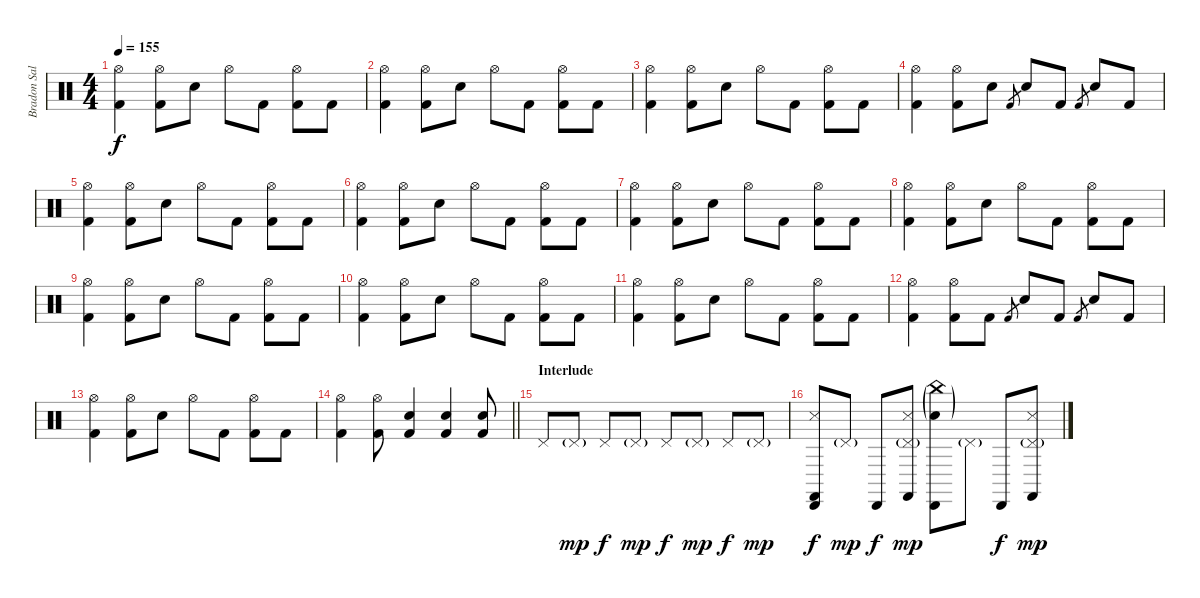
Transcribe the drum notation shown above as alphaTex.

\track ("Bradon Saller" "Bradon Sal") {instrument percussion}
\staff {score}
\articulation defaults
\ts (4 4)
\tempo 155
\clef neutral
\ks c
("Hi-Hat (open)" "Kick (hit) 2").4{dy f} ("Hi-Hat (open)" "Kick (hit) 2").8 "Electric Snare (hit)".8 "Hi-Hat (open)".8 "Kick (hit) 2".8 ("Hi-Hat (open)" "Kick (hit) 2").8 "Kick (hit) 2".8 |
("Hi-Hat (open)" "Kick (hit) 2").4 ("Hi-Hat (open)" "Kick (hit) 2").8 "Electric Snare (hit)".8 "Hi-Hat (open)".8 "Kick (hit) 2".8 ("Hi-Hat (open)" "Kick (hit) 2").8 "Kick (hit) 2".8 |
("Hi-Hat (open)" "Kick (hit) 2").4 ("Hi-Hat (open)" "Kick (hit) 2").8 "Electric Snare (hit)".8 "Hi-Hat (open)".8 "Kick (hit) 2".8 ("Hi-Hat (open)" "Kick (hit) 2").8 "Kick (hit) 2".8 |
("Hi-Hat (open)" "Kick (hit) 2").4 ("Hi-Hat (open)" "Kick (hit) 2").8 "Electric Snare (hit)".8 "Kick (hit) 2".8{gr} "Electric Snare (hit)".8 "Kick (hit) 2".8 "Kick (hit) 2".8{gr} "Electric Snare (hit)".8 "Kick (hit) 2".8 |
("Hi-Hat (open)" "Kick (hit) 2").4 ("Hi-Hat (open)" "Kick (hit) 2").8 "Electric Snare (hit)".8 "Hi-Hat (open)".8 "Kick (hit) 2".8 ("Hi-Hat (open)" "Kick (hit) 2").8 "Kick (hit) 2".8 |
("Hi-Hat (open)" "Kick (hit) 2").4 ("Hi-Hat (open)" "Kick (hit) 2").8 "Electric Snare (hit)".8 "Hi-Hat (open)".8 "Kick (hit) 2".8 ("Hi-Hat (open)" "Kick (hit) 2").8 "Kick (hit) 2".8 |
("Hi-Hat (open)" "Kick (hit) 2").4 ("Hi-Hat (open)" "Kick (hit) 2").8 "Electric Snare (hit)".8 "Hi-Hat (open)".8 "Kick (hit) 2".8 ("Hi-Hat (open)" "Kick (hit) 2").8 "Kick (hit) 2".8 |
("Hi-Hat (open)" "Kick (hit) 2").4 ("Hi-Hat (open)" "Kick (hit) 2").8 "Electric Snare (hit)".8 "Hi-Hat (open)".8 "Kick (hit) 2".8 ("Hi-Hat (open)" "Kick (hit) 2").8 "Kick (hit) 2".8 |
("Hi-Hat (open)" "Kick (hit) 2").4 ("Hi-Hat (open)" "Kick (hit) 2").8 "Electric Snare (hit)".8 "Hi-Hat (open)".8 "Kick (hit) 2".8 ("Hi-Hat (open)" "Kick (hit) 2").8 "Kick (hit) 2".8 |
("Hi-Hat (open)" "Kick (hit) 2").4 ("Hi-Hat (open)" "Kick (hit) 2").8 "Electric Snare (hit)".8 "Hi-Hat (open)".8 "Kick (hit) 2".8 ("Hi-Hat (open)" "Kick (hit) 2").8 "Kick (hit) 2".8 |
("Hi-Hat (open)" "Kick (hit) 2").4 ("Hi-Hat (open)" "Kick (hit) 2").8 "Electric Snare (hit)".8 "Hi-Hat (open)".8 "Kick (hit) 2".8 ("Hi-Hat (open)" "Kick (hit) 2").8 "Kick (hit) 2".8 |
("Hi-Hat (open)" "Kick (hit) 2").4 ("Hi-Hat (open)" "Kick (hit) 2").8 "Kick (hit) 2".8 "Kick (hit) 2".8{gr} "Electric Snare (hit)".8 "Kick (hit) 2".8 "Kick (hit) 2".8{gr} "Electric Snare (hit)".8 "Kick (hit) 2".8 |
("Hi-Hat (open)" "Kick (hit) 2").4 ("Hi-Hat (open)" "Kick (hit) 2").8 "Electric Snare (hit)".8 "Hi-Hat (open)".8 "Kick (hit) 2".8 ("Hi-Hat (open)" "Kick (hit) 2").8 "Kick (hit) 2".8 |
\barLineRight lightlight
("Hi-Hat (open)" "Kick (hit) 2").4 ("Hi-Hat (open)" "Kick (hit) 2").8 ("Electric Snare (hit)" "Kick (hit) 2").4 ("Electric Snare (hit)" "Kick (hit) 2").4 ("Electric Snare (hit)" "Kick (hit) 2").8 |
\section ("" "Interlude")
"Pedal Hi-Hat (hit)".8 "Pedal Hi-Hat (hit)"{g}.8{dy mp} "Pedal Hi-Hat (hit)".8{dy f} "Pedal Hi-Hat (hit)"{g}.8{dy mp} "Pedal Hi-Hat (hit)".8{dy f} "Pedal Hi-Hat (hit)"{g}.8{dy mp} "Pedal Hi-Hat (hit)".8{dy f} "Pedal Hi-Hat (hit)"{g}.8{dy mp} |
("Cabasa (hit)" "Castanets (hit)" "Snare (side stick) 3").8{dy f} "Pedal Hi-Hat (hit)"{g}.8{dy mp} "Cabasa (hit)".8{dy f} ("Pedal Hi-Hat (hit)"{g} "Castanets (hit)" "Snare (side stick) 3").8{dy mp} ("Cabasa (hit)" "China (hit)"{g} "Electric Snare (hit)"{g}).8 "Pedal Hi-Hat (hit)"{g}.8 "Cabasa (hit)".8{dy f} ("Pedal Hi-Hat (hit)"{g} "Castanets (hit)" "Snare (side stick) 3").8{dy mp}
